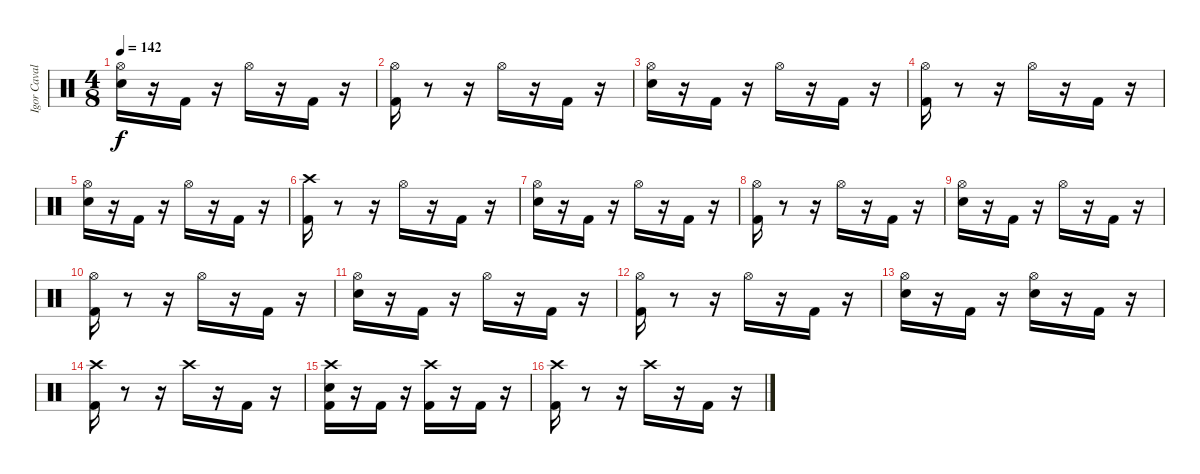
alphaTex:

\track ("Igor Cavalera" "Igor Caval") {instrument percussion}
\staff {score}
\articulation defaults
\ts (4 8)
\tempo 142
\clef neutral
\ks c
("Electric Snare (hit)" "Hi-Hat (open)").16{dy f} r.16 "Kick (hit) 2".16 r.16 "Hi-Hat (open)".16 r.16 "Kick (hit) 2".16 r.16 |
("Kick (hit) 2" "Hi-Hat (open)").16 r.8 r.16 "Hi-Hat (open)".16 r.16 "Kick (hit) 2".16 r.16 |
("Electric Snare (hit)" "Hi-Hat (open)").16 r.16 "Kick (hit) 2".16 r.16 "Hi-Hat (open)".16 r.16 "Kick (hit) 2".16 r.16 |
("Kick (hit) 2" "Hi-Hat (open)").16 r.8 r.16 "Hi-Hat (open)".16 r.16 "Kick (hit) 2".16 r.16 |
("Electric Snare (hit)" "Hi-Hat (open)").16 r.16 "Kick (hit) 2".16 r.16 "Hi-Hat (open)".16 r.16 "Kick (hit) 2".16 r.16 |
("Kick (hit) 2" "Crash high (hit)").16 r.8 r.16 "Hi-Hat (open)".16 r.16 "Kick (hit) 2".16 r.16 |
("Electric Snare (hit)" "Hi-Hat (open)").16 r.16 "Kick (hit) 2".16 r.16 "Hi-Hat (open)".16 r.16 "Kick (hit) 2".16 r.16 |
("Kick (hit) 2" "Hi-Hat (open)").16 r.8 r.16 "Hi-Hat (open)".16 r.16 "Kick (hit) 2".16 r.16 |
("Electric Snare (hit)" "Hi-Hat (open)").16 r.16 "Kick (hit) 2".16 r.16 "Hi-Hat (open)".16 r.16 "Kick (hit) 2".16 r.16 |
("Kick (hit) 2" "Hi-Hat (open)").16 r.8 r.16 "Hi-Hat (open)".16 r.16 "Kick (hit) 2".16 r.16 |
("Electric Snare (hit)" "Hi-Hat (open)").16 r.16 "Kick (hit) 2".16 r.16 "Hi-Hat (open)".16 r.16 "Kick (hit) 2".16 r.16 |
("Kick (hit) 2" "Hi-Hat (open)").16 r.8 r.16 "Hi-Hat (open)".16 r.16 "Kick (hit) 2".16 r.16 |
("Electric Snare (hit)" "Hi-Hat (open)").16 r.16 "Kick (hit) 2".16 r.16 ("Hi-Hat (open)" "Electric Snare (hit)").16 r.16 "Kick (hit) 2".16 r.16 |
("Kick (hit) 2" "Crash high (hit)").16 r.8 r.16 "Crash high (hit)".16 r.16 "Kick (hit) 2".16 r.16 |
("Electric Snare (hit)" "Kick (hit) 2" "Crash high (hit)").16 r.16 "Kick (hit) 2".16 r.16 ("Crash high (hit)" "Kick (hit) 2").16 r.16 "Kick (hit) 2".16 r.16 |
("Kick (hit) 2" "Crash high (hit)").16 r.8 r.16 "Crash high (hit)".16 r.16 "Kick (hit) 2".16 r.16
